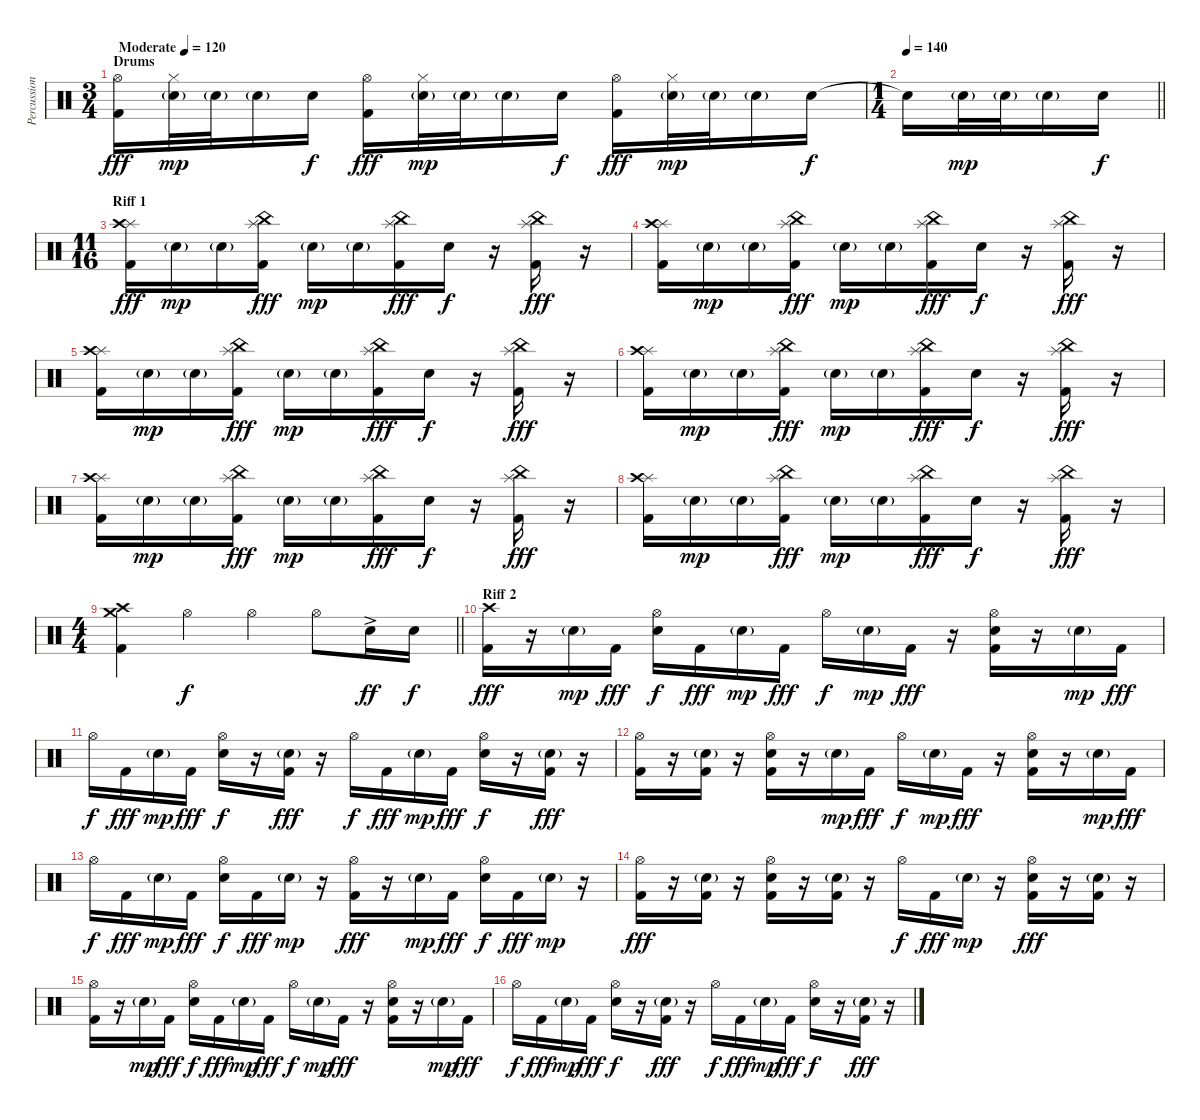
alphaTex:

\track ("Percussion" "Percussion") {instrument percussion}
\staff {score}
\articulation defaults
\ts (3 4)
\section ("" "Drums")
\tempo (120 "Moderate")
\clef neutral
\ks c
("Hi-Hat (open)" "Kick (hit) 2").16{dy fff} ("Hi-Hat (closed)" "Electric Snare (hit)"{g}).32{dy mp} "Electric Snare (hit)"{g}.32 "Electric Snare (hit)"{g}.16 "Electric Snare (hit)".16{dy f} ("Hi-Hat (open)" "Kick (hit) 2").16{dy fff} ("Hi-Hat (closed)" "Electric Snare (hit)"{g}).32{dy mp} "Electric Snare (hit)"{g}.32 "Electric Snare (hit)"{g}.16 "Electric Snare (hit)".16{dy f} ("Hi-Hat (open)" "Kick (hit) 2").16{dy fff} ("Hi-Hat (closed)" "Electric Snare (hit)"{g}).32{dy mp} "Electric Snare (hit)"{g}.32 "Electric Snare (hit)"{g}.16 "Electric Snare (hit)".16{dy f} |
\ts (1 4)
\tempo 140
\barLineRight lightlight "Snare (hit)"{t}.16 "Electric Snare (hit)"{g}.32{dy mp} "Electric Snare (hit)"{g}.32 "Electric Snare (hit)"{g}.16 "Electric Snare (hit)".16{dy f}
|
\ts (11 16)
\section ("" "Riff 1")
("Splash (hit)" "Crash high (hit)" "Kick (hit) 2").16{dy fff} "Electric Snare (hit)"{g}.16{dy mp} "Electric Snare (hit)"{g}.16 ("Splash (hit)" "China (hit)" "Kick (hit) 2").16{dy fff} "Electric Snare (hit)"{g}.16{dy mp} "Electric Snare (hit)"{g}.16 ("Splash (hit)" "China (hit)" "Kick (hit) 2").16{dy fff} "Electric Snare (hit)".16{dy f} r.16 ("Splash (hit)" "China (hit)" "Kick (hit) 2").16{dy fff} r.16 |
("Splash (hit)" "Crash high (hit)" "Kick (hit) 2").16 "Electric Snare (hit)"{g}.16{dy mp} "Electric Snare (hit)"{g}.16 ("Splash (hit)" "China (hit)" "Kick (hit) 2").16{dy fff} "Electric Snare (hit)"{g}.16{dy mp} "Electric Snare (hit)"{g}.16 ("Splash (hit)" "China (hit)" "Kick (hit) 2").16{dy fff} "Electric Snare (hit)".16{dy f} r.16 ("Splash (hit)" "China (hit)" "Kick (hit) 2").16{dy fff} r.16 |
("Splash (hit)" "Crash high (hit)" "Kick (hit) 2").16 "Electric Snare (hit)"{g}.16{dy mp} "Electric Snare (hit)"{g}.16 ("Splash (hit)" "China (hit)" "Kick (hit) 2").16{dy fff} "Electric Snare (hit)"{g}.16{dy mp} "Electric Snare (hit)"{g}.16 ("Splash (hit)" "China (hit)" "Kick (hit) 2").16{dy fff} "Electric Snare (hit)".16{dy f} r.16 ("Splash (hit)" "China (hit)" "Kick (hit) 2").16{dy fff} r.16 |
("Splash (hit)" "Crash high (hit)" "Kick (hit) 2").16 "Electric Snare (hit)"{g}.16{dy mp} "Electric Snare (hit)"{g}.16 ("Splash (hit)" "China (hit)" "Kick (hit) 2").16{dy fff} "Electric Snare (hit)"{g}.16{dy mp} "Electric Snare (hit)"{g}.16 ("Splash (hit)" "China (hit)" "Kick (hit) 2").16{dy fff} "Electric Snare (hit)".16{dy f} r.16 ("Splash (hit)" "China (hit)" "Kick (hit) 2").16{dy fff} r.16 |
("Splash (hit)" "Crash high (hit)" "Kick (hit) 2").16 "Electric Snare (hit)"{g}.16{dy mp} "Electric Snare (hit)"{g}.16 ("Splash (hit)" "China (hit)" "Kick (hit) 2").16{dy fff} "Electric Snare (hit)"{g}.16{dy mp} "Electric Snare (hit)"{g}.16 ("Splash (hit)" "China (hit)" "Kick (hit) 2").16{dy fff} "Electric Snare (hit)".16{dy f} r.16 ("Splash (hit)" "China (hit)" "Kick (hit) 2").16{dy fff} r.16 |
("Splash (hit)" "Crash high (hit)" "Kick (hit) 2").16 "Electric Snare (hit)"{g}.16{dy mp} "Electric Snare (hit)"{g}.16 ("Splash (hit)" "China (hit)" "Kick (hit) 2").16{dy fff} "Electric Snare (hit)"{g}.16{dy mp} "Electric Snare (hit)"{g}.16 ("Splash (hit)" "China (hit)" "Kick (hit) 2").16{dy fff} "Electric Snare (hit)".16{dy f} r.16 ("Splash (hit)" "China (hit)" "Kick (hit) 2").16{dy fff} r.16 |
\ts (4 4)
\barLineRight lightlight
("Crash medium (hit)" "Crash high (hit)" "Kick (hit) 2").4 "Hi-Hat (open)".4{dy f} "Hi-Hat (open)".4 "Hi-Hat (open)".8 "Electric Snare (hit)"{ac}.16{dy ff} "Electric Snare (hit)".16{dy f} |
\section ("" "Riff 2")
("Crash high (hit)" "Kick (hit) 2").16{dy fff} r.16 "Electric Snare (hit)"{g}.16{dy mp} "Kick (hit) 2".16{dy fff} ("Hi-Hat (open)" "Electric Snare (hit)").16{dy f} "Kick (hit) 2".16{dy fff} "Electric Snare (hit)"{g}.16{dy mp} "Kick (hit) 2".16{dy fff} "Hi-Hat (open)".16{dy f} "Electric Snare (hit)"{g}.16{dy mp} "Kick (hit) 2".16{dy fff} r.16 ("Hi-Hat (open)" "Electric Snare (hit)" "Kick (hit) 2").16 r.16 "Electric Snare (hit)"{g}.16{dy mp} "Kick (hit) 2".16{dy fff} |
"Hi-Hat (open)".16{dy f} "Kick (hit) 2".16{dy fff} "Electric Snare (hit)"{g}.16{dy mp} "Kick (hit) 2".16{dy fff} ("Hi-Hat (open)" "Electric Snare (hit)").16{dy f} r.16 ("Electric Snare (hit)"{g} "Kick (hit) 2").16{dy fff} r.16 "Hi-Hat (open)".16{dy f} "Kick (hit) 2".16{dy fff} "Electric Snare (hit)"{g}.16{dy mp} "Kick (hit) 2".16{dy fff} ("Hi-Hat (open)" "Electric Snare (hit)").16{dy f} r.16 ("Electric Snare (hit)"{g} "Kick (hit) 2").16{dy fff} r.16 |
("Hi-Hat (open)" "Kick (hit) 2").16 r.16 ("Electric Snare (hit)"{g} "Kick (hit) 2").16 r.16 ("Hi-Hat (open)" "Electric Snare (hit)" "Kick (hit) 2").16 r.16 "Electric Snare (hit)"{g}.16{dy mp} "Kick (hit) 2".16{dy fff} "Hi-Hat (open)".16{dy f} "Electric Snare (hit)"{g}.16{dy mp} "Kick (hit) 2".16{dy fff} r.16 ("Hi-Hat (open)" "Electric Snare (hit)" "Kick (hit) 2").16 r.16 "Electric Snare (hit)"{g}.16{dy mp} "Kick (hit) 2".16{dy fff} |
"Hi-Hat (open)".16{dy f} "Kick (hit) 2".16{dy fff} "Electric Snare (hit)"{g}.16{dy mp} "Kick (hit) 2".16{dy fff} ("Hi-Hat (open)" "Electric Snare (hit)").16{dy f} "Kick (hit) 2".16{dy fff} "Electric Snare (hit)"{g}.16{dy mp} r.16 ("Hi-Hat (open)" "Kick (hit) 2").16{dy fff} r.16 "Electric Snare (hit)"{g}.16{dy mp} "Kick (hit) 2".16{dy fff} ("Hi-Hat (open)" "Electric Snare (hit)").16{dy f} "Kick (hit) 2".16{dy fff} "Electric Snare (hit)"{g}.16{dy mp} r.16 |
("Hi-Hat (open)" "Kick (hit) 2").16{dy fff} r.16 ("Electric Snare (hit)"{g} "Kick (hit) 2").16 r.16 ("Hi-Hat (open)" "Electric Snare (hit)" "Kick (hit) 2").16 r.16 ("Electric Snare (hit)"{g} "Kick (hit) 2").16 r.16 "Hi-Hat (open)".16{dy f} "Kick (hit) 2".16{dy fff} "Electric Snare (hit)"{g}.16{dy mp} r.16 ("Hi-Hat (open)" "Electric Snare (hit)" "Kick (hit) 2").16{dy fff} r.16 ("Electric Snare (hit)"{g} "Kick (hit) 2").16 r.16 |
("Hi-Hat (open)" "Kick (hit) 2").16 r.16 "Electric Snare (hit)"{g}.16{dy mp} "Kick (hit) 2".16{dy fff} ("Hi-Hat (open)" "Electric Snare (hit)").16{dy f} "Kick (hit) 2".16{dy fff} "Electric Snare (hit)"{g}.16{dy mp} "Kick (hit) 2".16{dy fff} "Hi-Hat (open)".16{dy f} "Electric Snare (hit)"{g}.16{dy mp} "Kick (hit) 2".16{dy fff} r.16 ("Hi-Hat (open)" "Electric Snare (hit)" "Kick (hit) 2").16 r.16 "Electric Snare (hit)"{g}.16{dy mp} "Kick (hit) 2".16{dy fff} |
"Hi-Hat (open)".16{dy f} "Kick (hit) 2".16{dy fff} "Electric Snare (hit)"{g}.16{dy mp} "Kick (hit) 2".16{dy fff} ("Hi-Hat (open)" "Electric Snare (hit)").16{dy f} r.16 ("Electric Snare (hit)"{g} "Kick (hit) 2").16{dy fff} r.16 "Hi-Hat (open)".16{dy f} "Kick (hit) 2".16{dy fff} "Electric Snare (hit)"{g}.16{dy mp} "Kick (hit) 2".16{dy fff} ("Hi-Hat (open)" "Electric Snare (hit)").16{dy f} r.16 ("Electric Snare (hit)"{g} "Kick (hit) 2").16{dy fff} r.16
